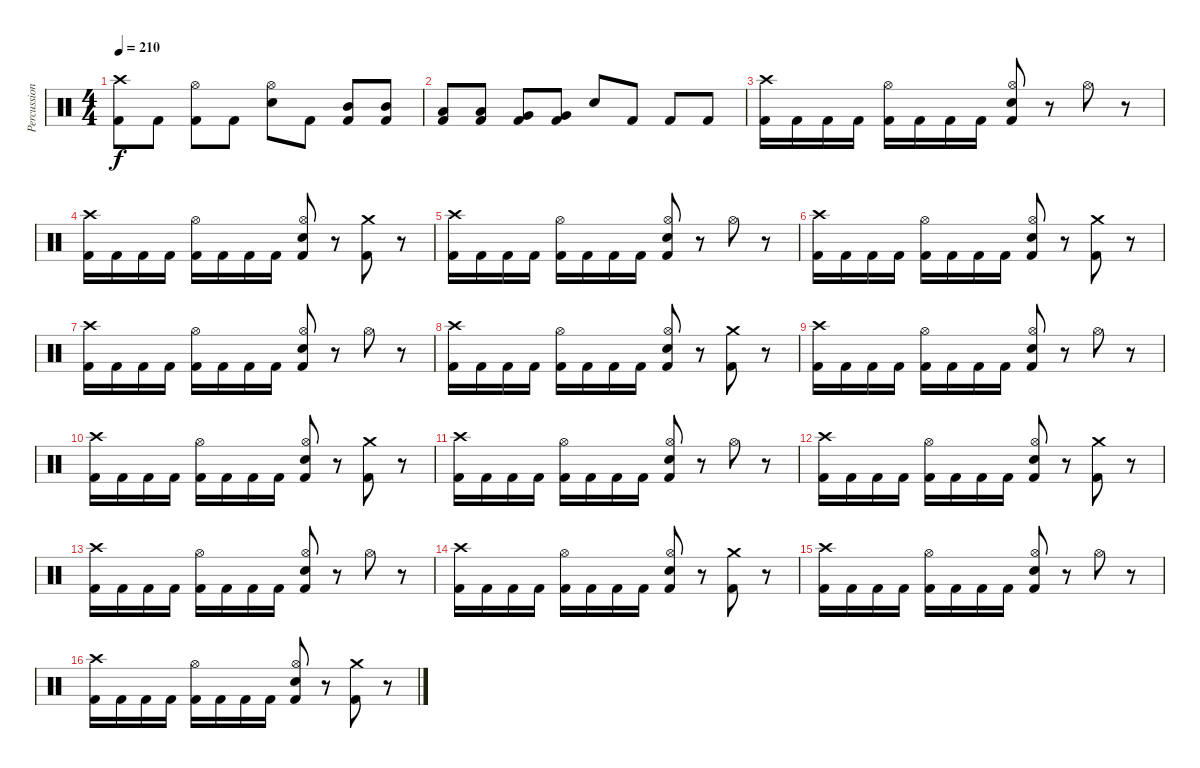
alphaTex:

\track ("Percussion" "Percussion") {instrument percussion}
\staff {score}
\articulation defaults
\ts (4 4)
\tempo 210
\clef neutral
\ks c
("Crash high (hit)" "Kick (hit) 2").8{dy f} "Kick (hit) 2".8 ("Hi-Hat (open)" "Kick (hit) 2").8 "Kick (hit) 2".8 ("Hi-Hat (open)" "Electric Snare (hit)").8 "Kick (hit) 2".8 ("Mid Tom (hit)" "Kick (hit) 2").8 ("Mid Tom (hit)" "Kick (hit) 2").8 |
("Low Tom (hit)" "Kick (hit) 2").8 ("Low Tom (hit)" "Kick (hit) 2").8 ("Very Low Tom (hit)" "Kick (hit) 2").8 ("Very Low Tom (hit)" "Kick (hit) 2").8 "Electric Snare (hit)".8 "Kick (hit) 2".8 "Kick (hit) 2".8 "Kick (hit) 2".8 |
("Crash high (hit)" "Kick (hit) 2").16 "Kick (hit) 2".16 "Kick (hit) 2".16 "Kick (hit) 2".16 ("Hi-Hat (open)" "Kick (hit) 2").16 "Kick (hit) 2".16 "Kick (hit) 2".16 "Kick (hit) 2".16 ("Hi-Hat (open)" "Electric Snare (hit)" "Kick (hit) 2").8 r.8 "Hi-Hat (open)".8 r.8 |
("Crash high (hit)" "Kick (hit) 2").16 "Kick (hit) 2".16 "Kick (hit) 2".16 "Kick (hit) 2".16 ("Hi-Hat (open)" "Kick (hit) 2").16 "Kick (hit) 2".16 "Kick (hit) 2".16 "Kick (hit) 2".16 ("Hi-Hat (open)" "Electric Snare (hit)" "Kick (hit) 2").8 r.8 ("Crash medium (hit)" "Kick (hit) 2").8 r.8 |
("Crash high (hit)" "Kick (hit) 2").16 "Kick (hit) 2".16 "Kick (hit) 2".16 "Kick (hit) 2".16 ("Hi-Hat (open)" "Kick (hit) 2").16 "Kick (hit) 2".16 "Kick (hit) 2".16 "Kick (hit) 2".16 ("Hi-Hat (open)" "Electric Snare (hit)" "Kick (hit) 2").8 r.8 "Hi-Hat (open)".8 r.8 |
("Crash high (hit)" "Kick (hit) 2").16 "Kick (hit) 2".16 "Kick (hit) 2".16 "Kick (hit) 2".16 ("Hi-Hat (open)" "Kick (hit) 2").16 "Kick (hit) 2".16 "Kick (hit) 2".16 "Kick (hit) 2".16 ("Hi-Hat (open)" "Electric Snare (hit)" "Kick (hit) 2").8 r.8 ("Crash medium (hit)" "Kick (hit) 2").8 r.8 |
("Crash high (hit)" "Kick (hit) 2").16 "Kick (hit) 2".16 "Kick (hit) 2".16 "Kick (hit) 2".16 ("Hi-Hat (open)" "Kick (hit) 2").16 "Kick (hit) 2".16 "Kick (hit) 2".16 "Kick (hit) 2".16 ("Hi-Hat (open)" "Electric Snare (hit)" "Kick (hit) 2").8 r.8 "Hi-Hat (open)".8 r.8 |
("Crash high (hit)" "Kick (hit) 2").16 "Kick (hit) 2".16 "Kick (hit) 2".16 "Kick (hit) 2".16 ("Hi-Hat (open)" "Kick (hit) 2").16 "Kick (hit) 2".16 "Kick (hit) 2".16 "Kick (hit) 2".16 ("Hi-Hat (open)" "Electric Snare (hit)" "Kick (hit) 2").8 r.8 ("Crash medium (hit)" "Kick (hit) 2").8 r.8 |
("Crash high (hit)" "Kick (hit) 2").16 "Kick (hit) 2".16 "Kick (hit) 2".16 "Kick (hit) 2".16 ("Hi-Hat (open)" "Kick (hit) 2").16 "Kick (hit) 2".16 "Kick (hit) 2".16 "Kick (hit) 2".16 ("Hi-Hat (open)" "Electric Snare (hit)" "Kick (hit) 2").8 r.8 "Hi-Hat (open)".8 r.8 |
("Crash high (hit)" "Kick (hit) 2").16 "Kick (hit) 2".16 "Kick (hit) 2".16 "Kick (hit) 2".16 ("Hi-Hat (open)" "Kick (hit) 2").16 "Kick (hit) 2".16 "Kick (hit) 2".16 "Kick (hit) 2".16 ("Hi-Hat (open)" "Electric Snare (hit)" "Kick (hit) 2").8 r.8 ("Crash medium (hit)" "Kick (hit) 2").8 r.8 |
("Crash high (hit)" "Kick (hit) 2").16 "Kick (hit) 2".16 "Kick (hit) 2".16 "Kick (hit) 2".16 ("Hi-Hat (open)" "Kick (hit) 2").16 "Kick (hit) 2".16 "Kick (hit) 2".16 "Kick (hit) 2".16 ("Hi-Hat (open)" "Electric Snare (hit)" "Kick (hit) 2").8 r.8 "Hi-Hat (open)".8 r.8 |
("Crash high (hit)" "Kick (hit) 2").16 "Kick (hit) 2".16 "Kick (hit) 2".16 "Kick (hit) 2".16 ("Hi-Hat (open)" "Kick (hit) 2").16 "Kick (hit) 2".16 "Kick (hit) 2".16 "Kick (hit) 2".16 ("Hi-Hat (open)" "Electric Snare (hit)" "Kick (hit) 2").8 r.8 ("Crash medium (hit)" "Kick (hit) 2").8 r.8 |
("Crash high (hit)" "Kick (hit) 2").16 "Kick (hit) 2".16 "Kick (hit) 2".16 "Kick (hit) 2".16 ("Hi-Hat (open)" "Kick (hit) 2").16 "Kick (hit) 2".16 "Kick (hit) 2".16 "Kick (hit) 2".16 ("Hi-Hat (open)" "Electric Snare (hit)" "Kick (hit) 2").8 r.8 "Hi-Hat (open)".8 r.8 |
("Crash high (hit)" "Kick (hit) 2").16 "Kick (hit) 2".16 "Kick (hit) 2".16 "Kick (hit) 2".16 ("Hi-Hat (open)" "Kick (hit) 2").16 "Kick (hit) 2".16 "Kick (hit) 2".16 "Kick (hit) 2".16 ("Hi-Hat (open)" "Electric Snare (hit)" "Kick (hit) 2").8 r.8 ("Crash medium (hit)" "Kick (hit) 2").8 r.8 |
("Crash high (hit)" "Kick (hit) 2").16 "Kick (hit) 2".16 "Kick (hit) 2".16 "Kick (hit) 2".16 ("Hi-Hat (open)" "Kick (hit) 2").16 "Kick (hit) 2".16 "Kick (hit) 2".16 "Kick (hit) 2".16 ("Hi-Hat (open)" "Electric Snare (hit)" "Kick (hit) 2").8 r.8 "Hi-Hat (open)".8 r.8 |
("Crash high (hit)" "Kick (hit) 2").16 "Kick (hit) 2".16 "Kick (hit) 2".16 "Kick (hit) 2".16 ("Hi-Hat (open)" "Kick (hit) 2").16 "Kick (hit) 2".16 "Kick (hit) 2".16 "Kick (hit) 2".16 ("Hi-Hat (open)" "Electric Snare (hit)" "Kick (hit) 2").8 r.8 ("Crash medium (hit)" "Kick (hit) 2").8 r.8
